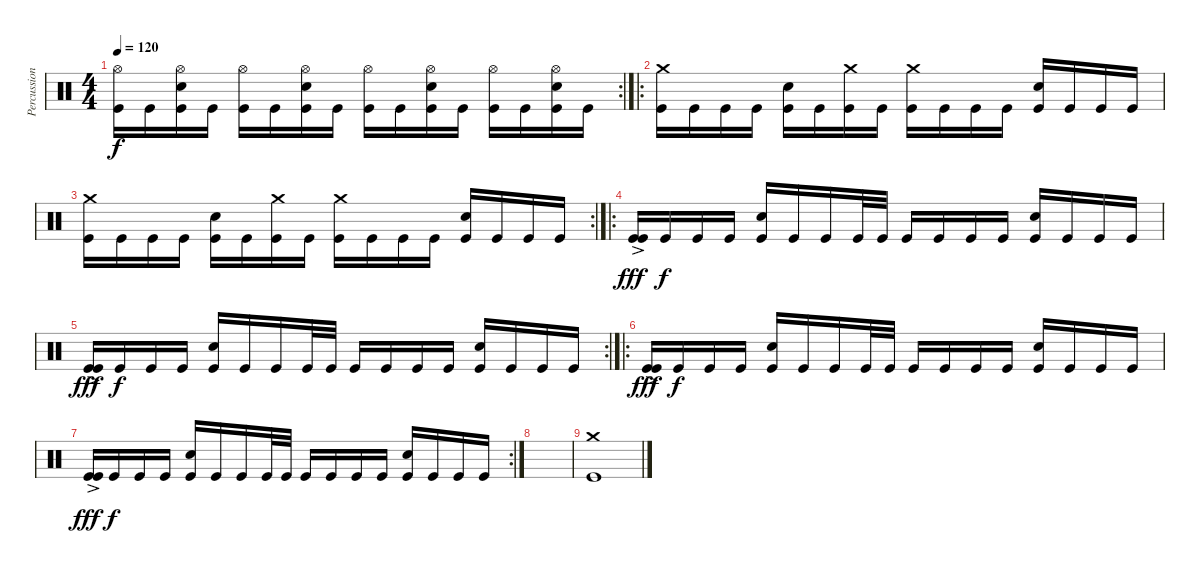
\track ("Percussion" "Percussion") {instrument percussion}
\staff {score}
\articulation defaults
\rc 2
\ts (4 4)
\tempo 120
\clef neutral
\ks c
("Hi-Hat (open)" "Kick (hit)").16{dy f} "Kick (hit)".16 ("Hi-Hat (open)" "Snare (hit) 2" "Kick (hit)").16 "Kick (hit)".16 ("Hi-Hat (open)" "Kick (hit)").16 "Kick (hit)".16 ("Hi-Hat (open)" "Snare (hit) 2" "Kick (hit)").16 "Kick (hit)".16 ("Hi-Hat (open)" "Kick (hit)").16 "Kick (hit)".16 ("Hi-Hat (open)" "Snare (hit) 2" "Kick (hit)").16 "Kick (hit)".16 ("Hi-Hat (open)" "Kick (hit)").16 "Kick (hit)".16 ("Hi-Hat (open)" "Snare (hit) 2" "Kick (hit)").16 "Kick (hit)".16 |
\ro
("Crash medium (hit)" "Kick (hit)").16 "Kick (hit)".16 "Kick (hit)".16 "Kick (hit)".16 ("Snare (hit) 2" "Kick (hit)").16 "Kick (hit)".16 ("Crash medium (hit)" "Kick (hit)").16 "Kick (hit)".16 ("Crash medium (hit)" "Kick (hit)").16 "Kick (hit)".16 "Kick (hit)".16 "Kick (hit)".16 ("Snare (hit) 2" "Kick (hit)").16 "Kick (hit)".16 "Kick (hit)".16 "Kick (hit)".16 |
\rc 2
("Crash medium (hit)" "Kick (hit)").16 "Kick (hit)".16 "Kick (hit)".16 "Kick (hit)".16 ("Snare (hit) 2" "Kick (hit)").16 "Kick (hit)".16 ("Crash medium (hit)" "Kick (hit)").16 "Kick (hit)".16 ("Crash medium (hit)" "Kick (hit)").16 "Kick (hit)".16 "Kick (hit)".16 "Kick (hit)".16 ("Snare (hit) 2" "Kick (hit)").16 "Kick (hit)".16 "Kick (hit)".16 "Kick (hit)".16 |
\ro
("Kick (hit)"{ac} "Kick (hit)").16{dy fff} "Kick (hit)".16{dy f} "Kick (hit)".16 "Kick (hit)".16 ("Snare (hit) 2" "Kick (hit)").16 "Kick (hit)".16 "Kick (hit)".16 "Kick (hit)".32 "Kick (hit)".32 "Kick (hit)".16 "Kick (hit)".16 "Kick (hit)".16 "Kick (hit)".16 ("Snare (hit) 2" "Kick (hit)").16 "Kick (hit)".16 "Kick (hit)".16 "Kick (hit)".16 |
\rc 2
("Kick (hit)"{ac} "Kick (hit)").16{dy fff} "Kick (hit)".16{dy f} "Kick (hit)".16 "Kick (hit)".16 ("Snare (hit) 2" "Kick (hit)").16 "Kick (hit)".16 "Kick (hit)".16 "Kick (hit)".32 "Kick (hit)".32 "Kick (hit)".16 "Kick (hit)".16 "Kick (hit)".16 "Kick (hit)".16 ("Snare (hit) 2" "Kick (hit)").16 "Kick (hit)".16 "Kick (hit)".16 "Kick (hit)".16 |
\ro
("Kick (hit)"{ac} "Kick (hit)").16{dy fff} "Kick (hit)".16{dy f} "Kick (hit)".16 "Kick (hit)".16 ("Snare (hit) 2" "Kick (hit)").16 "Kick (hit)".16 "Kick (hit)".16 "Kick (hit)".32 "Kick (hit)".32 "Kick (hit)".16 "Kick (hit)".16 "Kick (hit)".16 "Kick (hit)".16 ("Snare (hit) 2" "Kick (hit)").16 "Kick (hit)".16 "Kick (hit)".16 "Kick (hit)".16 |
\rc 2
("Kick (hit)"{ac} "Kick (hit)").16{dy fff} "Kick (hit)".16{dy f} "Kick (hit)".16 "Kick (hit)".16 ("Snare (hit) 2" "Kick (hit)").16 "Kick (hit)".16 "Kick (hit)".16 "Kick (hit)".32 "Kick (hit)".32 "Kick (hit)".16 "Kick (hit)".16 "Kick (hit)".16 "Kick (hit)".16 ("Snare (hit) 2" "Kick (hit)").16 "Kick (hit)".16 "Kick (hit)".16 "Kick (hit)".16 |
|
("Crash medium (hit)" "Kick (hit)").1
